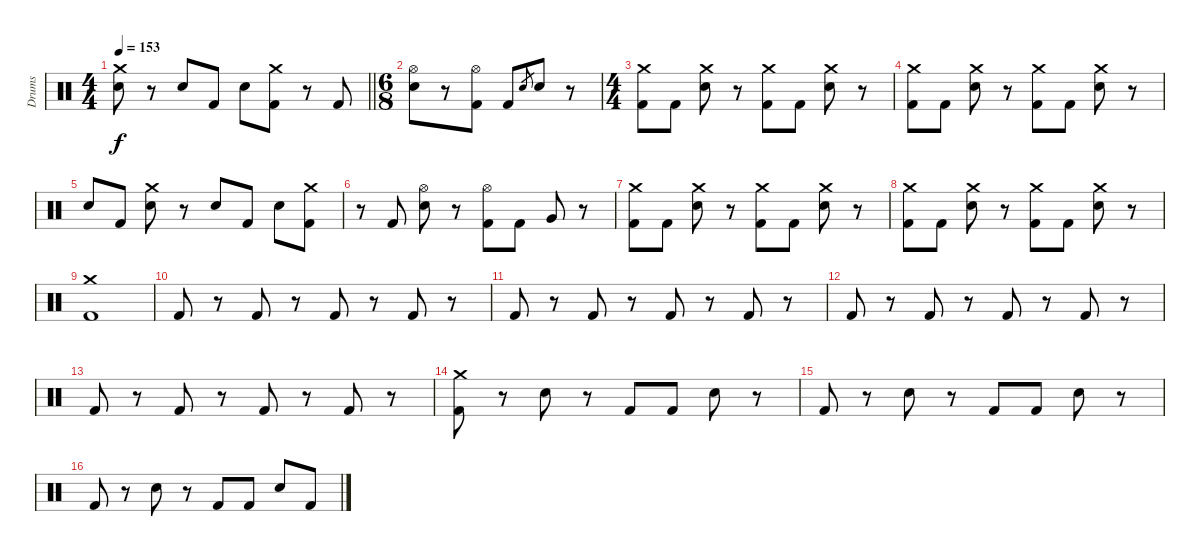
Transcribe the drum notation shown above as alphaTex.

\track ("Drums" "Drums") {instrument percussion}
\staff {score}
\articulation defaults
\ts (4 4)
\tempo 153
\clef neutral
\barLineRight lightlight
\ks c
("Crash medium (hit)" "Electric Snare (hit)").8{dy f} r.8 "Electric Snare (hit)".8 "Kick (hit) 2".8 "Electric Snare (hit)".8 ("Crash medium (hit)" "Kick (hit) 2").8 r.8 "Kick (hit) 2".8 |
\ts (6 8)
("Hi-Hat (open)" "Electric Snare (hit)").8 r.8 ("Hi-Hat (open)" "Kick (hit) 2").8 "Kick (hit) 2".8 "Electric Snare (hit)".8{gr} "Electric Snare (hit)".8 r.8 |
\ts (4 4)
("Crash medium (hit)" "Kick (hit) 2").8 "Kick (hit) 2".8 ("Crash medium (hit)" "Electric Snare (hit)").8 r.8 ("Crash medium (hit)" "Kick (hit) 2").8 "Kick (hit) 2".8 ("Crash medium (hit)" "Electric Snare (hit)").8 r.8 |
("Crash medium (hit)" "Kick (hit) 2").8 "Kick (hit) 2".8 ("Crash medium (hit)" "Electric Snare (hit)").8 r.8 ("Crash medium (hit)" "Kick (hit) 2").8 "Kick (hit) 2".8 ("Crash medium (hit)" "Electric Snare (hit)").8 r.8 |
"Electric Snare (hit)".8 "Kick (hit) 2".8 ("Crash medium (hit)" "Electric Snare (hit)").8 r.8 "Electric Snare (hit)".8 "Kick (hit) 2".8 "Electric Snare (hit)".8 ("Crash medium (hit)" "Kick (hit) 2").8 |
r.8 "Kick (hit) 2".8 ("Hi-Hat (open)" "Electric Snare (hit)").8 r.8 ("Hi-Hat (open)" "Kick (hit) 2").8 "Kick (hit) 2".8 "Very Low Tom (hit)".8 r.8 |
("Crash medium (hit)" "Kick (hit) 2").8 "Kick (hit) 2".8 ("Crash medium (hit)" "Electric Snare (hit)").8 r.8 ("Crash medium (hit)" "Kick (hit) 2").8 "Kick (hit) 2".8 ("Crash medium (hit)" "Electric Snare (hit)").8 r.8 |
("Crash medium (hit)" "Kick (hit) 2").8 "Kick (hit) 2".8 ("Crash medium (hit)" "Electric Snare (hit)").8 r.8 ("Crash medium (hit)" "Kick (hit) 2").8 "Kick (hit) 2".8 ("Crash medium (hit)" "Electric Snare (hit)").8 r.8 |
("Crash medium (hit)" "Kick (hit) 2").1 |
"Kick (hit) 2".8 r.8 "Kick (hit) 2".8 r.8 "Kick (hit) 2".8 r.8 "Kick (hit) 2".8 r.8 |
"Kick (hit) 2".8 r.8 "Kick (hit) 2".8 r.8 "Kick (hit) 2".8 r.8 "Kick (hit) 2".8 r.8 |
"Kick (hit) 2".8 r.8 "Kick (hit) 2".8 r.8 "Kick (hit) 2".8 r.8 "Kick (hit) 2".8 r.8 |
"Kick (hit) 2".8 r.8 "Kick (hit) 2".8 r.8 "Kick (hit) 2".8 r.8 "Kick (hit) 2".8 r.8 |
("Crash medium (hit)" "Kick (hit) 2").8 r.8 "Electric Snare (hit)".8 r.8 "Kick (hit) 2".8 "Kick (hit) 2".8 "Electric Snare (hit)".8 r.8 |
"Kick (hit) 2".8 r.8 "Electric Snare (hit)".8 r.8 "Kick (hit) 2".8 "Kick (hit) 2".8 "Electric Snare (hit)".8 r.8 |
"Kick (hit) 2".8 r.8 "Electric Snare (hit)".8 r.8 "Kick (hit) 2".8 "Kick (hit) 2".8 "Electric Snare (hit)".8 "Kick (hit) 2".8
